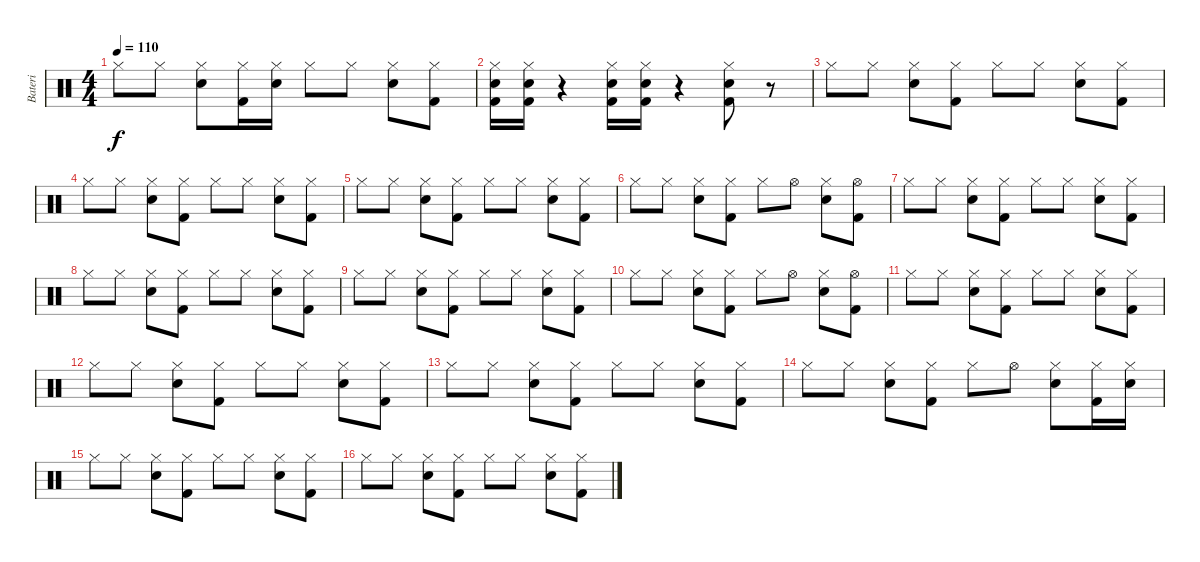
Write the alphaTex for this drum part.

\track ("Bateri" "Bateri") {instrument percussion}
\staff {score}
\articulation defaults
\ts (4 4)
\tempo 110
\clef neutral
\ks c "Hi-Hat (closed)".8{dy f} "Hi-Hat (closed)".8
("Electric Snare (hit)" "Hi-Hat (closed)").8 ("Kick (hit) 2" "Hi-Hat (closed)").16 ("Electric Snare (hit)" "Hi-Hat (closed)").16 "Hi-Hat (closed)".8 "Hi-Hat (closed)".8 ("Electric Snare (hit)" "Hi-Hat (closed)").8 ("Kick (hit) 2" "Hi-Hat (closed)").8 |
("Electric Snare (hit)" "Kick (hit) 2" "Hi-Hat (closed)").16 ("Electric Snare (hit)" "Kick (hit) 2" "Hi-Hat (closed)").16 r.4 ("Electric Snare (hit)" "Kick (hit) 2" "Hi-Hat (closed)").16 ("Electric Snare (hit)" "Kick (hit) 2" "Hi-Hat (closed)").16 r.4 ("Electric Snare (hit)" "Kick (hit) 2" "Hi-Hat (closed)").8 r.8 |
"Hi-Hat (closed)".8 "Hi-Hat (closed)".8 ("Electric Snare (hit)" "Hi-Hat (closed)").8 ("Kick (hit) 2" "Hi-Hat (closed)").8 "Hi-Hat (closed)".8 "Hi-Hat (closed)".8 ("Electric Snare (hit)" "Hi-Hat (closed)").8 ("Kick (hit) 2" "Hi-Hat (closed)").8 |
"Hi-Hat (closed)".8 "Hi-Hat (closed)".8 ("Electric Snare (hit)" "Hi-Hat (closed)").8 ("Kick (hit) 2" "Hi-Hat (closed)").8 "Hi-Hat (closed)".8 "Hi-Hat (closed)".8 ("Electric Snare (hit)" "Hi-Hat (closed)").8 ("Kick (hit) 2" "Hi-Hat (closed)").8 |
"Hi-Hat (closed)".8 "Hi-Hat (closed)".8 ("Electric Snare (hit)" "Hi-Hat (closed)").8 ("Kick (hit) 2" "Hi-Hat (closed)").8 "Hi-Hat (closed)".8 "Hi-Hat (closed)".8 ("Electric Snare (hit)" "Hi-Hat (closed)").8 ("Kick (hit) 2" "Hi-Hat (closed)").8 |
"Hi-Hat (closed)".8 "Hi-Hat (closed)".8 ("Electric Snare (hit)" "Hi-Hat (closed)").8 ("Kick (hit) 2" "Hi-Hat (closed)").8 "Hi-Hat (closed)".8 "Hi-Hat (open)".8 ("Electric Snare (hit)" "Hi-Hat (closed)").8 ("Kick (hit) 2" "Hi-Hat (open)").8 |
"Hi-Hat (closed)".8 "Hi-Hat (closed)".8 ("Electric Snare (hit)" "Hi-Hat (closed)").8 ("Kick (hit) 2" "Hi-Hat (closed)").8 "Hi-Hat (closed)".8 "Hi-Hat (closed)".8 ("Electric Snare (hit)" "Hi-Hat (closed)").8 ("Kick (hit) 2" "Hi-Hat (closed)").8 |
"Hi-Hat (closed)".8 "Hi-Hat (closed)".8 ("Electric Snare (hit)" "Hi-Hat (closed)").8 ("Kick (hit) 2" "Hi-Hat (closed)").8 "Hi-Hat (closed)".8 "Hi-Hat (closed)".8 ("Electric Snare (hit)" "Hi-Hat (closed)").8 ("Kick (hit) 2" "Hi-Hat (closed)").8 |
"Hi-Hat (closed)".8 "Hi-Hat (closed)".8 ("Electric Snare (hit)" "Hi-Hat (closed)").8 ("Kick (hit) 2" "Hi-Hat (closed)").8 "Hi-Hat (closed)".8 "Hi-Hat (closed)".8 ("Electric Snare (hit)" "Hi-Hat (closed)").8 ("Kick (hit) 2" "Hi-Hat (closed)").8 |
"Hi-Hat (closed)".8 "Hi-Hat (closed)".8 ("Electric Snare (hit)" "Hi-Hat (closed)").8 ("Kick (hit) 2" "Hi-Hat (closed)").8 "Hi-Hat (closed)".8 "Hi-Hat (open)".8 ("Electric Snare (hit)" "Hi-Hat (closed)").8 ("Kick (hit) 2" "Hi-Hat (open)").8 |
"Hi-Hat (closed)".8 "Hi-Hat (closed)".8 ("Electric Snare (hit)" "Hi-Hat (closed)").8 ("Kick (hit) 2" "Hi-Hat (closed)").8 "Hi-Hat (closed)".8 "Hi-Hat (closed)".8 ("Electric Snare (hit)" "Hi-Hat (closed)").8 ("Kick (hit) 2" "Hi-Hat (closed)").8 |
"Hi-Hat (closed)".8 "Hi-Hat (closed)".8 ("Electric Snare (hit)" "Hi-Hat (closed)").8 ("Kick (hit) 2" "Hi-Hat (closed)").8 "Hi-Hat (closed)".8 "Hi-Hat (closed)".8 ("Electric Snare (hit)" "Hi-Hat (closed)").8 ("Kick (hit) 2" "Hi-Hat (closed)").8 |
"Hi-Hat (closed)".8 "Hi-Hat (closed)".8 ("Electric Snare (hit)" "Hi-Hat (closed)").8 ("Kick (hit) 2" "Hi-Hat (closed)").8 "Hi-Hat (closed)".8 "Hi-Hat (closed)".8 ("Electric Snare (hit)" "Hi-Hat (closed)").8 ("Kick (hit) 2" "Hi-Hat (closed)").8 |
"Hi-Hat (closed)".8 "Hi-Hat (closed)".8 ("Electric Snare (hit)" "Hi-Hat (closed)").8 ("Kick (hit) 2" "Hi-Hat (closed)").8 "Hi-Hat (closed)".8 "Hi-Hat (open)".8 ("Electric Snare (hit)" "Hi-Hat (closed)").8 ("Kick (hit) 2" "Hi-Hat (closed)").16 ("Electric Snare (hit)" "Hi-Hat (closed)").16 |
"Hi-Hat (closed)".8 "Hi-Hat (closed)".8 ("Electric Snare (hit)" "Hi-Hat (closed)").8 ("Kick (hit) 2" "Hi-Hat (closed)").8 "Hi-Hat (closed)".8 "Hi-Hat (closed)".8 ("Electric Snare (hit)" "Hi-Hat (closed)").8 ("Kick (hit) 2" "Hi-Hat (closed)").8 |
"Hi-Hat (closed)".8 "Hi-Hat (closed)".8 ("Electric Snare (hit)" "Hi-Hat (closed)").8 ("Kick (hit) 2" "Hi-Hat (closed)").8 "Hi-Hat (closed)".8 "Hi-Hat (closed)".8 ("Electric Snare (hit)" "Hi-Hat (closed)").8 ("Kick (hit) 2" "Hi-Hat (closed)").8
